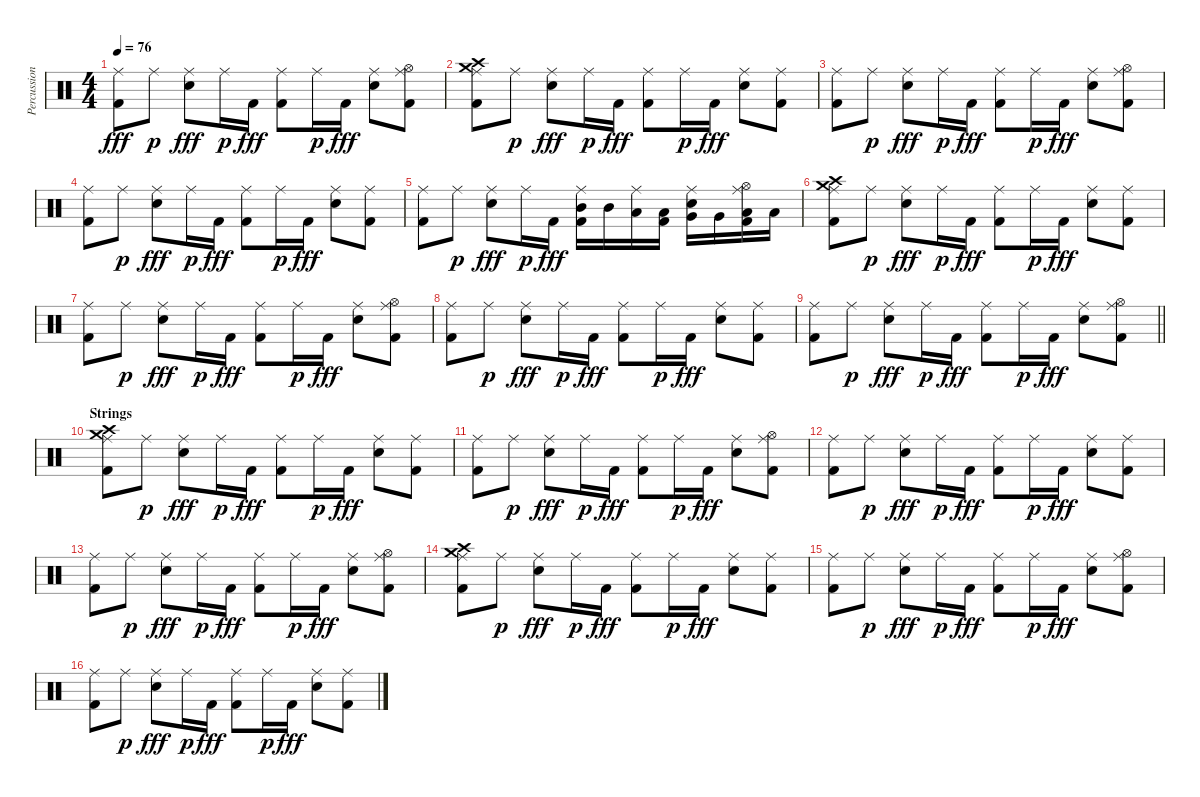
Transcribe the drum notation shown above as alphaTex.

\track ("Percussions" "Percussion") {instrument percussion}
\staff {score}
\articulation defaults
\ts (4 4)
\tempo 76
\clef neutral
\ks c
("Ride (middle)" "Kick (hit) 2").8{dy fff} "Ride (middle)".8{dy p} ("Ride (middle)" "Electric Snare (hit)").8{dy fff} "Ride (middle)".16{dy p} "Kick (hit) 2".16{dy fff} ("Ride (middle)" "Kick (hit) 2").8 "Ride (middle)".16{dy p} "Kick (hit) 2".16{dy fff} ("Ride (middle)" "Electric Snare (hit)").8 ("Ride (middle)" "Hi-Hat (open)" "Kick (hit) 2").8 |
("Ride (middle)" "Crash medium (hit)" "Crash high (hit)" "Kick (hit) 2").8 "Ride (middle)".8{dy p} ("Ride (middle)" "Electric Snare (hit)").8{dy fff} "Ride (middle)".16{dy p} "Kick (hit) 2".16{dy fff} ("Ride (middle)" "Kick (hit) 2").8 "Ride (middle)".16{dy p} "Kick (hit) 2".16{dy fff} ("Ride (middle)" "Electric Snare (hit)").8 ("Ride (middle)" "Kick (hit) 2").8 |
("Ride (middle)" "Kick (hit) 2").8 "Ride (middle)".8{dy p} ("Ride (middle)" "Electric Snare (hit)").8{dy fff} "Ride (middle)".16{dy p} "Kick (hit) 2".16{dy fff} ("Ride (middle)" "Kick (hit) 2").8 "Ride (middle)".16{dy p} "Kick (hit) 2".16{dy fff} ("Ride (middle)" "Electric Snare (hit)").8 ("Ride (middle)" "Hi-Hat (open)" "Kick (hit) 2").8 |
("Ride (middle)" "Kick (hit) 2").8 "Ride (middle)".8{dy p} ("Ride (middle)" "Electric Snare (hit)").8{dy fff} "Ride (middle)".16{dy p} "Kick (hit) 2".16{dy fff} ("Ride (middle)" "Kick (hit) 2").8 "Ride (middle)".16{dy p} "Kick (hit) 2".16{dy fff} ("Ride (middle)" "Electric Snare (hit)").8 ("Ride (middle)" "Kick (hit) 2").8 |
("Ride (middle)" "Kick (hit) 2").8 "Ride (middle)".8{dy p} ("Ride (middle)" "Electric Snare (hit)").8{dy fff} "Ride (middle)".16{dy p} "Kick (hit) 2".16{dy fff} ("Ride (middle)" "Mid Tom (hit)" "Kick (hit) 2").16 "Mid Tom (hit)".16 ("Ride (middle)" "Low Tom (hit)").16 ("Low Tom (hit)" "Kick (hit) 2").16 ("Ride (middle)" "Electric Snare (hit)" "Very Low Tom (hit)").16 "Very Low Tom (hit)".16 ("Ride (middle)" "Hi-Hat (open)" "Low Floor Tom (hit)" "Kick (hit) 2").16 "Low Floor Tom (hit)".16 |
("Ride (middle)" "Crash medium (hit)" "Crash high (hit)" "Kick (hit) 2").8 "Ride (middle)".8{dy p} ("Ride (middle)" "Electric Snare (hit)").8{dy fff} "Ride (middle)".16{dy p} "Kick (hit) 2".16{dy fff} ("Ride (middle)" "Kick (hit) 2").8 "Ride (middle)".16{dy p} "Kick (hit) 2".16{dy fff} ("Ride (middle)" "Electric Snare (hit)").8 ("Ride (middle)" "Kick (hit) 2").8 |
("Ride (middle)" "Kick (hit) 2").8 "Ride (middle)".8{dy p} ("Ride (middle)" "Electric Snare (hit)").8{dy fff} "Ride (middle)".16{dy p} "Kick (hit) 2".16{dy fff} ("Ride (middle)" "Kick (hit) 2").8 "Ride (middle)".16{dy p} "Kick (hit) 2".16{dy fff} ("Ride (middle)" "Electric Snare (hit)").8 ("Ride (middle)" "Hi-Hat (open)" "Kick (hit) 2").8 |
("Ride (middle)" "Kick (hit) 2").8 "Ride (middle)".8{dy p} ("Ride (middle)" "Electric Snare (hit)").8{dy fff} "Ride (middle)".16{dy p} "Kick (hit) 2".16{dy fff} ("Ride (middle)" "Kick (hit) 2").8 "Ride (middle)".16{dy p} "Kick (hit) 2".16{dy fff} ("Ride (middle)" "Electric Snare (hit)").8 ("Ride (middle)" "Kick (hit) 2").8 |
\barLineRight lightlight
("Ride (middle)" "Kick (hit) 2").8 "Ride (middle)".8{dy p} ("Ride (middle)" "Electric Snare (hit)").8{dy fff} "Ride (middle)".16{dy p} "Kick (hit) 2".16{dy fff} ("Ride (middle)" "Kick (hit) 2").8 "Ride (middle)".16{dy p} "Kick (hit) 2".16{dy fff} ("Ride (middle)" "Electric Snare (hit)").8 ("Ride (middle)" "Hi-Hat (open)" "Kick (hit) 2").8 |
\section ("" "Strings")
("Ride (middle)" "Crash medium (hit)" "Crash high (hit)" "Kick (hit) 2").8 "Ride (middle)".8{dy p} ("Ride (middle)" "Electric Snare (hit)").8{dy fff} "Ride (middle)".16{dy p} "Kick (hit) 2".16{dy fff} ("Ride (middle)" "Kick (hit) 2").8 "Ride (middle)".16{dy p} "Kick (hit) 2".16{dy fff} ("Ride (middle)" "Electric Snare (hit)").8 ("Ride (middle)" "Kick (hit) 2").8 |
("Ride (middle)" "Kick (hit) 2").8 "Ride (middle)".8{dy p} ("Ride (middle)" "Electric Snare (hit)").8{dy fff} "Ride (middle)".16{dy p} "Kick (hit) 2".16{dy fff} ("Ride (middle)" "Kick (hit) 2").8 "Ride (middle)".16{dy p} "Kick (hit) 2".16{dy fff} ("Ride (middle)" "Electric Snare (hit)").8 ("Ride (middle)" "Hi-Hat (open)" "Kick (hit) 2").8 |
("Ride (middle)" "Kick (hit) 2").8 "Ride (middle)".8{dy p} ("Ride (middle)" "Electric Snare (hit)").8{dy fff} "Ride (middle)".16{dy p} "Kick (hit) 2".16{dy fff} ("Ride (middle)" "Kick (hit) 2").8 "Ride (middle)".16{dy p} "Kick (hit) 2".16{dy fff} ("Ride (middle)" "Electric Snare (hit)").8 ("Ride (middle)" "Kick (hit) 2").8 |
("Ride (middle)" "Kick (hit) 2").8 "Ride (middle)".8{dy p} ("Ride (middle)" "Electric Snare (hit)").8{dy fff} "Ride (middle)".16{dy p} "Kick (hit) 2".16{dy fff} ("Ride (middle)" "Kick (hit) 2").8 "Ride (middle)".16{dy p} "Kick (hit) 2".16{dy fff} ("Ride (middle)" "Electric Snare (hit)").8 ("Ride (middle)" "Hi-Hat (open)" "Kick (hit) 2").8 |
("Ride (middle)" "Crash medium (hit)" "Crash high (hit)" "Kick (hit) 2").8 "Ride (middle)".8{dy p} ("Ride (middle)" "Electric Snare (hit)").8{dy fff} "Ride (middle)".16{dy p} "Kick (hit) 2".16{dy fff} ("Ride (middle)" "Kick (hit) 2").8 "Ride (middle)".16{dy p} "Kick (hit) 2".16{dy fff} ("Ride (middle)" "Electric Snare (hit)").8 ("Ride (middle)" "Kick (hit) 2").8 |
("Ride (middle)" "Kick (hit) 2").8 "Ride (middle)".8{dy p} ("Ride (middle)" "Electric Snare (hit)").8{dy fff} "Ride (middle)".16{dy p} "Kick (hit) 2".16{dy fff} ("Ride (middle)" "Kick (hit) 2").8 "Ride (middle)".16{dy p} "Kick (hit) 2".16{dy fff} ("Ride (middle)" "Electric Snare (hit)").8 ("Ride (middle)" "Hi-Hat (open)" "Kick (hit) 2").8 |
("Ride (middle)" "Kick (hit) 2").8 "Ride (middle)".8{dy p} ("Ride (middle)" "Electric Snare (hit)").8{dy fff} "Ride (middle)".16{dy p} "Kick (hit) 2".16{dy fff} ("Ride (middle)" "Kick (hit) 2").8 "Ride (middle)".16{dy p} "Kick (hit) 2".16{dy fff} ("Ride (middle)" "Electric Snare (hit)").8 ("Ride (middle)" "Kick (hit) 2").8
